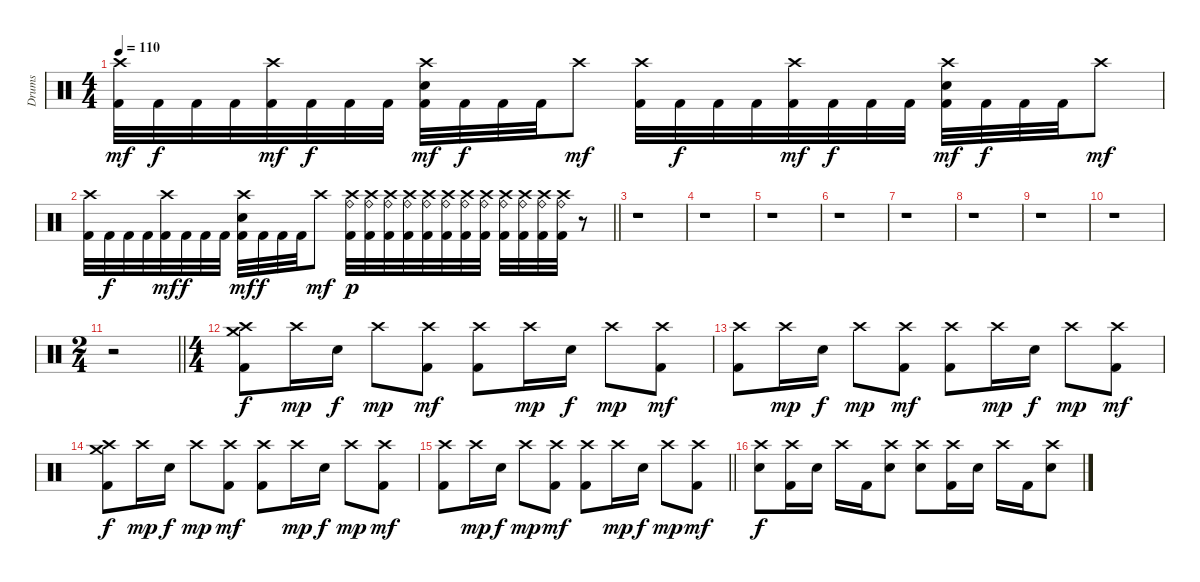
\track ("Drums" "Drums") {instrument percussion}
\staff {score}
\articulation defaults
\ts (4 4)
\tempo 110
\clef neutral
\ks c
("Crash high (hit)" "Kick (hit) 2").32{dy mf} "Kick (hit) 2".32{dy f} "Kick (hit) 2".32 "Kick (hit) 2".32 ("Crash high (hit)" "Kick (hit) 2").32{dy mf} "Kick (hit) 2".32{dy f} "Kick (hit) 2".32 "Kick (hit) 2".32 ("Crash high (hit)" "Snare (hit) 2" "Kick (hit) 2").32{dy mf} "Kick (hit) 2".32{dy f} "Kick (hit) 2".32 "Kick (hit) 2".32 "Crash high (hit)".8{dy mf} ("Crash high (hit)" "Kick (hit) 2").32 "Kick (hit) 2".32{dy f} "Kick (hit) 2".32 "Kick (hit) 2".32 ("Crash high (hit)" "Kick (hit) 2").32{dy mf} "Kick (hit) 2".32{dy f} "Kick (hit) 2".32 "Kick (hit) 2".32 ("Crash high (hit)" "Snare (hit) 2" "Kick (hit) 2").32{dy mf} "Kick (hit) 2".32{dy f} "Kick (hit) 2".32 "Kick (hit) 2".32 "Crash high (hit)".8{dy mf} |
\barLineRight lightlight
("Crash high (hit)" "Kick (hit) 2").32 "Kick (hit) 2".32{dy f} "Kick (hit) 2".32 "Kick (hit) 2".32 ("Crash high (hit)" "Kick (hit) 2").32{dy mf} "Kick (hit) 2".32{dy f} "Kick (hit) 2".32 "Kick (hit) 2".32 ("Crash high (hit)" "Snare (hit) 2" "Kick (hit) 2").32{dy mf} "Kick (hit) 2".32{dy f} "Kick (hit) 2".32 "Kick (hit) 2".32 "Crash high (hit)".8{dy mf} ("Ride (bell)" "Crash high (hit)" "Kick (hit) 2").32{dy p} ("Ride (bell)" "Crash high (hit)" "Kick (hit) 2").32 ("Ride (bell)" "Crash high (hit)" "Kick (hit) 2").32 ("Ride (bell)" "Crash high (hit)" "Kick (hit) 2").32 ("Ride (bell)" "Crash high (hit)" "Kick (hit) 2").32 ("Ride (bell)" "Crash high (hit)" "Kick (hit) 2").32 ("Ride (bell)" "Crash high (hit)" "Kick (hit) 2").32 ("Ride (bell)" "Crash high (hit)" "Kick (hit) 2").32 ("Ride (bell)" "Crash high (hit)" "Kick (hit) 2").32 ("Ride (bell)" "Crash high (hit)" "Kick (hit) 2").32 ("Ride (bell)" "Crash high (hit)" "Kick (hit) 2").32 ("Ride (bell)" "Crash high (hit)" "Kick (hit) 2").32 r.8 |
r.1 |
r.1 |
r.1 |
r.1 |
r.1 |
r.1 |
r.1 |
r.1 |
\ts (2 4)
\barLineRight lightlight
r.2 |
\ts (4 4)
("Crash medium (hit)" "Crash high (hit)" "Kick (hit) 2").8{dy f} "Crash high (hit)".16{dy mp} "Snare (hit) 2".16{dy f} "Crash high (hit)".8{dy mp} ("Crash high (hit)" "Kick (hit) 2").8{dy mf} ("Crash high (hit)" "Kick (hit) 2").8 "Crash high (hit)".16{dy mp} "Snare (hit) 2".16{dy f} "Crash high (hit)".8{dy mp} ("Crash high (hit)" "Kick (hit) 2").8{dy mf} |
("Crash high (hit)" "Kick (hit) 2").8 "Crash high (hit)".16{dy mp} "Snare (hit) 2".16{dy f} "Crash high (hit)".8{dy mp} ("Crash high (hit)" "Kick (hit) 2").8{dy mf} ("Crash high (hit)" "Kick (hit) 2").8 "Crash high (hit)".16{dy mp} "Snare (hit) 2".16{dy f} "Crash high (hit)".8{dy mp} ("Crash high (hit)" "Kick (hit) 2").8{dy mf} |
("Crash medium (hit)" "Crash high (hit)" "Kick (hit) 2").8{dy f} "Crash high (hit)".16{dy mp} "Snare (hit) 2".16{dy f} "Crash high (hit)".8{dy mp} ("Crash high (hit)" "Kick (hit) 2").8{dy mf} ("Crash high (hit)" "Kick (hit) 2").8 "Crash high (hit)".16{dy mp} "Snare (hit) 2".16{dy f} "Crash high (hit)".8{dy mp} ("Crash high (hit)" "Kick (hit) 2").8{dy mf} |
\barLineRight lightlight
("Crash high (hit)" "Kick (hit) 2").8 "Crash high (hit)".16{dy mp} "Snare (hit) 2".16{dy f} "Crash high (hit)".8{dy mp} ("Crash high (hit)" "Kick (hit) 2").8{dy mf} ("Crash high (hit)" "Kick (hit) 2").8 "Crash high (hit)".16{dy mp} "Snare (hit) 2".16{dy f} "Crash high (hit)".8{dy mp} ("Crash high (hit)" "Kick (hit) 2").8{dy mf} |
("Crash high (hit)" "Snare (hit) 2").8{dy f} ("Crash high (hit)" "Kick (hit) 2").16 "Snare (hit) 2".16 "Crash high (hit)".16 "Kick (hit) 2".16 ("Crash high (hit)" "Snare (hit) 2").8 ("Crash high (hit)" "Snare (hit) 2").8 ("Crash high (hit)" "Kick (hit) 2").16 "Snare (hit) 2".16 "Crash high (hit)".16 "Kick (hit) 2".16 ("Crash high (hit)" "Snare (hit) 2").8
